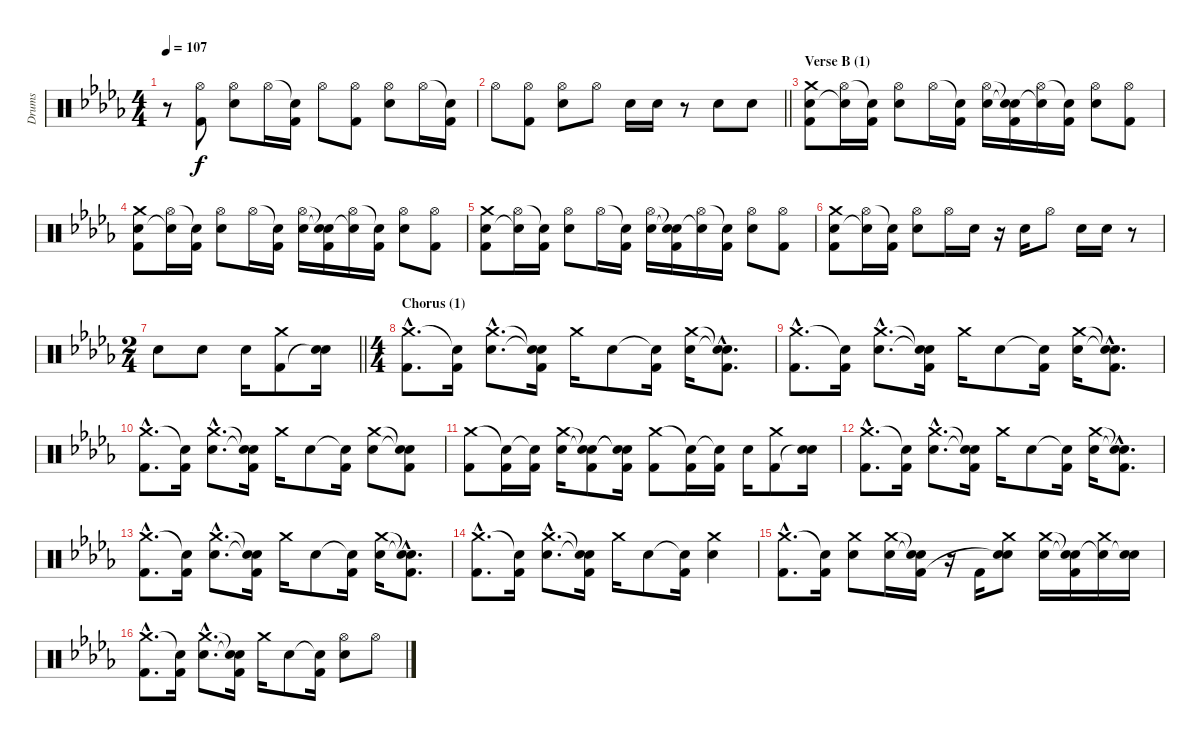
\track ("Drums" "Drums") {instrument percussion}
\staff {score}
\articulation defaults
\ts (4 4)
\tempo 107
\clef neutral
\ks bbminor
r.8{dy f} ("Hi-Hat (open)" "Kick (hit) 2").8 ("Hi-Hat (open)" "Electric Snare (hit)").8 "Hi-Hat (open)".16 ("Snare (hit)"{t} "Kick (hit) 2").16 "Hi-Hat (open)".8 ("Hi-Hat (open)" "Kick (hit) 2").8 ("Hi-Hat (open)" "Electric Snare (hit)").8 "Hi-Hat (open)".16 ("Snare (hit)"{t} "Kick (hit) 2").16 |
\barLineRight lightlight "Hi-Hat (open)".8
("Hi-Hat (open)" "Kick (hit) 2").8 ("Hi-Hat (open)" "Electric Snare (hit)").8 "Hi-Hat (open)".8 "Electric Snare (hit)".16 "Electric Snare (hit)".16 r.8 "Electric Snare (hit)".8 "Electric Snare (hit)".8 |
\section ("" "Verse B (1)")
("Crash medium (hit)" "Electric Snare (hit)" "Kick (hit) 2").8 ("Hi-Hat (open)" "Snare (hit)"{t}).16 ("Snare (hit)"{t} "Kick (hit) 2").16 ("Hi-Hat (open)" "Electric Snare (hit)").8 "Hi-Hat (open)".16 ("Snare (hit)"{t} "Kick (hit) 2").16 ("Hi-Hat (open)" "Electric Snare (hit)").16 ("Snare (hit)"{t} "Snare (hit)"{t} "Kick (hit) 2").16 ("Hi-Hat (open)" "Snare (hit)"{t}).16 ("Snare (hit)"{t} "Kick (hit) 2").16 ("Hi-Hat (open)" "Electric Snare (hit)").8 ("Hi-Hat (open)" "Kick (hit) 2").8 |
("Crash medium (hit)" "Electric Snare (hit)" "Kick (hit) 2").8 ("Hi-Hat (open)" "Snare (hit)"{t}).16 ("Snare (hit)"{t} "Kick (hit) 2").16 ("Hi-Hat (open)" "Electric Snare (hit)").8 "Hi-Hat (open)".16 ("Snare (hit)"{t} "Kick (hit) 2").16 ("Hi-Hat (open)" "Electric Snare (hit)").16 ("Snare (hit)"{t} "Snare (hit)"{t} "Kick (hit) 2").16 ("Hi-Hat (open)" "Snare (hit)"{t}).16 ("Snare (hit)"{t} "Kick (hit) 2").16 ("Hi-Hat (open)" "Electric Snare (hit)").8 ("Hi-Hat (open)" "Kick (hit) 2").8 |
("Crash medium (hit)" "Electric Snare (hit)" "Kick (hit) 2").8 ("Hi-Hat (open)" "Snare (hit)"{t}).16 ("Snare (hit)"{t} "Kick (hit) 2").16 ("Hi-Hat (open)" "Electric Snare (hit)").8 "Hi-Hat (open)".16 ("Snare (hit)"{t} "Kick (hit) 2").16 ("Hi-Hat (open)" "Electric Snare (hit)").16 ("Snare (hit)"{t} "Snare (hit)"{t} "Kick (hit) 2").16 ("Hi-Hat (open)" "Snare (hit)"{t}).16 ("Snare (hit)"{t} "Kick (hit) 2").16 ("Hi-Hat (open)" "Electric Snare (hit)").8 ("Hi-Hat (open)" "Kick (hit) 2").8 |
("Crash medium (hit)" "Electric Snare (hit)" "Kick (hit) 2").8 ("Hi-Hat (open)" "Snare (hit)"{t}).16 ("Snare (hit)"{t} "Kick (hit) 2").16 ("Hi-Hat (open)" "Electric Snare (hit)").8 "Hi-Hat (open)".16 "Electric Snare (hit)".16 r.16 "Electric Snare (hit)".16 "Hi-Hat (open)".8 "Electric Snare (hit)".16 "Electric Snare (hit)".16 r.8 |
\ts (2 4)
\barLineRight lightlight "Electric Snare (hit)".8 "Electric Snare (hit)".8 "Electric Snare (hit)".16
("Crash medium (hit)" "Kick (hit) 2").8 ("Electric Snare (hit)" "Snare (hit)"{t}).16 |
\ts (4 4)
\section ("" "Chorus (1)")
("Crash medium (hit)"{hac} "Kick (hit) 2"{hac}).8{d} ("Snare (hit)"{t} "Kick (hit) 2").16 ("Crash medium (hit)"{hac} "Electric Snare (hit)"{hac}).8{d} ("Snare (hit)"{t} "Snare (hit)"{t} "Kick (hit) 2").16 "Crash medium (hit)".16 "Electric Snare (hit)".8 ("Snare (hit)"{t} "Kick (hit) 2").16 ("Crash medium (hit)" "Electric Snare (hit)").16 ("Snare (hit)"{hac t} "Snare (hit)"{hac t} "Kick (hit) 2"{hac}).8{d} |
("Crash medium (hit)"{hac} "Kick (hit) 2"{hac}).8{d} ("Snare (hit)"{t} "Kick (hit) 2").16 ("Crash medium (hit)"{hac} "Electric Snare (hit)"{hac}).8{d} ("Snare (hit)"{t} "Snare (hit)"{t} "Kick (hit) 2").16 "Crash medium (hit)".16 "Electric Snare (hit)".8 ("Snare (hit)"{t} "Kick (hit) 2").16 ("Crash medium (hit)" "Electric Snare (hit)").16 ("Snare (hit)"{hac t} "Snare (hit)"{hac t} "Kick (hit) 2"{hac}).8{d} |
("Crash medium (hit)"{hac} "Kick (hit) 2"{hac}).8{d} ("Snare (hit)"{t} "Kick (hit) 2").16 ("Crash medium (hit)"{hac} "Electric Snare (hit)"{hac}).8{d} ("Snare (hit)"{t} "Snare (hit)"{t} "Kick (hit) 2").16 "Crash medium (hit)".16 "Electric Snare (hit)".8 ("Snare (hit)"{t} "Kick (hit) 2").16 ("Crash medium (hit)" "Electric Snare (hit)").8 ("Snare (hit)"{t} "Snare (hit)"{t} "Kick (hit) 2").8 |
("Crash medium (hit)" "Kick (hit) 2").8 ("Snare (hit)"{t} "Kick (hit) 2").16 ("Snare (hit)"{t} "Kick (hit) 2").16 ("Crash medium (hit)" "Electric Snare (hit)").16 ("Snare (hit)"{t} "Snare (hit)"{t} "Kick (hit) 2").8 ("Snare (hit)"{t} "Snare (hit)"{t} "Kick (hit) 2").16 ("Crash medium (hit)" "Kick (hit) 2").8 ("Snare (hit)"{t} "Kick (hit) 2").16 ("Snare (hit)"{t} "Kick (hit) 2").16 "Electric Snare (hit)".16 ("Crash medium (hit)" "Kick (hit) 2").8 ("Electric Snare (hit)" "Snare (hit)"{t}).16 |
("Crash medium (hit)"{hac} "Kick (hit) 2"{hac}).8{d} ("Snare (hit)"{t} "Kick (hit) 2").16 ("Crash medium (hit)"{hac} "Electric Snare (hit)"{hac}).8{d} ("Snare (hit)"{t} "Snare (hit)"{t} "Kick (hit) 2").16 "Crash medium (hit)".16 "Electric Snare (hit)".8 ("Snare (hit)"{t} "Kick (hit) 2").16 ("Crash medium (hit)" "Electric Snare (hit)").16 ("Snare (hit)"{hac t} "Snare (hit)"{hac t} "Kick (hit) 2"{hac}).8{d} |
("Crash medium (hit)"{hac} "Kick (hit) 2"{hac}).8{d} ("Snare (hit)"{t} "Kick (hit) 2").16 ("Crash medium (hit)"{hac} "Electric Snare (hit)"{hac}).8{d} ("Snare (hit)"{t} "Snare (hit)"{t} "Kick (hit) 2").16 "Crash medium (hit)".16 "Electric Snare (hit)".8 ("Snare (hit)"{t} "Kick (hit) 2").16 ("Crash medium (hit)" "Electric Snare (hit)").16 ("Snare (hit)"{hac t} "Snare (hit)"{hac t} "Kick (hit) 2"{hac}).8{d} |
("Crash medium (hit)"{hac} "Kick (hit) 2"{hac}).8{d} ("Snare (hit)"{t} "Kick (hit) 2").16 ("Crash medium (hit)"{hac} "Electric Snare (hit)"{hac}).8{d} ("Snare (hit)"{t} "Snare (hit)"{t} "Kick (hit) 2").16 "Crash medium (hit)".16 "Electric Snare (hit)".8 ("Snare (hit)"{t} "Kick (hit) 2").16 ("Crash medium (hit)" "Electric Snare (hit)").4 |
("Crash medium (hit)"{hac} "Kick (hit) 2"{hac}).8{d} ("Snare (hit)"{t} "Kick (hit) 2").16 ("Crash medium (hit)" "Electric Snare (hit)").8 ("Crash medium (hit)" "Electric Snare (hit)").16 ("Snare (hit)"{t} "Snare (hit)"{t} "Kick (hit) 2").16 r.16 "Kick (hit) 2".16 ("Crash medium (hit)" "Electric Snare (hit)" "Snare (hit)"{t}).8 ("Crash medium (hit)" "Electric Snare (hit)").16 ("Snare (hit)"{t} "Snare (hit)"{t} "Kick (hit) 2").16 ("Crash medium (hit)" "Snare (hit)"{t}).16 ("Electric Snare (hit)" "Snare (hit)"{t}).16 |
("Crash medium (hit)"{hac} "Kick (hit) 2"{hac}).8{d} ("Snare (hit)"{t} "Kick (hit) 2").16 ("Crash medium (hit)"{hac} "Electric Snare (hit)"{hac}).8{d} ("Snare (hit)"{t} "Snare (hit)"{t} "Kick (hit) 2").16 "Crash medium (hit)".16 "Electric Snare (hit)".8 ("Snare (hit)"{t} "Kick (hit) 2").16 ("Hi-Hat (open)" "Electric Snare (hit)").8 "Hi-Hat (open)".8
